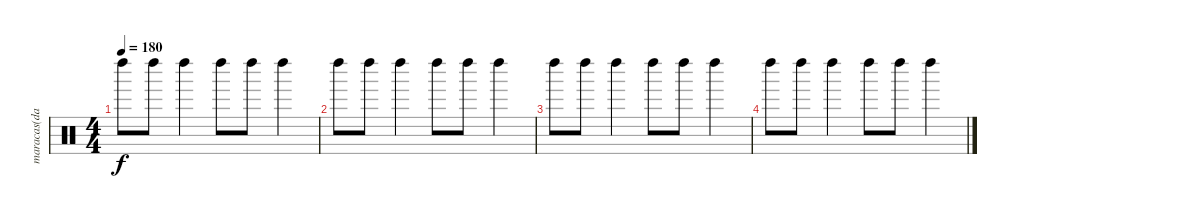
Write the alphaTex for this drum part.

\track ("maracas(dave)" "maracas(da") {instrument percussion}
\staff {score}
\articulation defaults
\ts (4 4)
\tempo 180
\clef neutral
\ks c "Left Maraca (hit)".8{dy f} "Left Maraca (hit)".8 "Left Maraca (hit)".4 "Left Maraca (hit)".8 "Left Maraca (hit)".8 "Left Maraca (hit)".4
|
"Left Maraca (hit)".8 "Left Maraca (hit)".8 "Left Maraca (hit)".4 "Left Maraca (hit)".8 "Left Maraca (hit)".8 "Left Maraca (hit)".4 |
"Left Maraca (hit)".8 "Left Maraca (hit)".8 "Left Maraca (hit)".4 "Left Maraca (hit)".8 "Left Maraca (hit)".8 "Left Maraca (hit)".4 |
"Left Maraca (hit)".8 "Left Maraca (hit)".8 "Left Maraca (hit)".4 "Left Maraca (hit)".8 "Left Maraca (hit)".8 "Left Maraca (hit)".4
